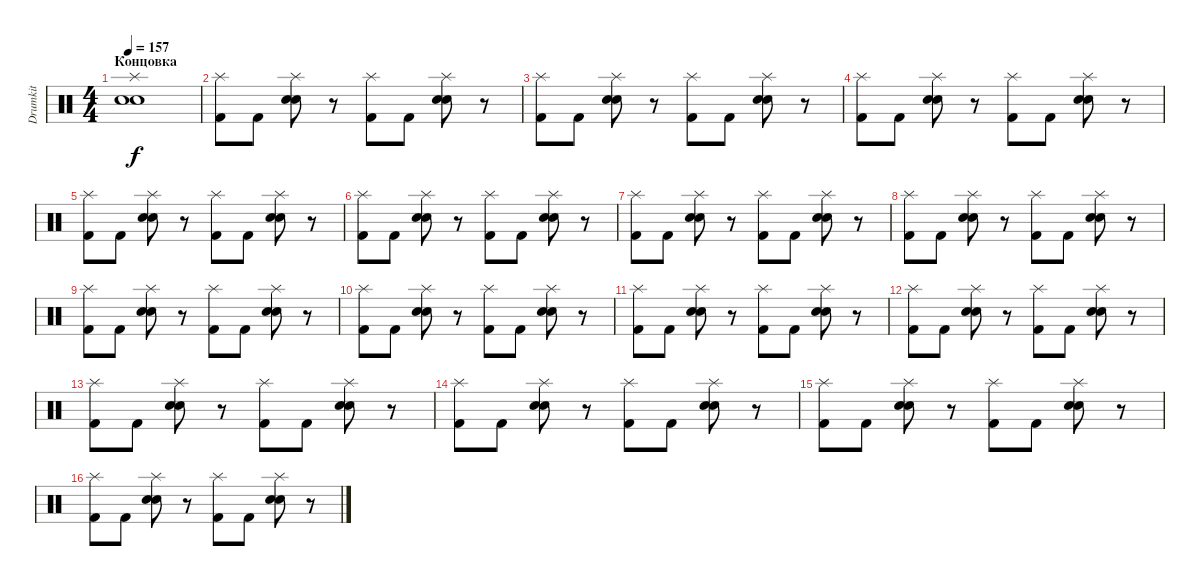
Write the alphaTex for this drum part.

\track ("Drumkit" "Drumkit") {instrument percussion}
\staff {score}
\articulation defaults
\ts (4 4)
\section ("" "Концовка")
\tempo 157
\clef neutral
\ks c
("Splash (hit)" "Electric Snare (hit)" "Snare (hit) 2").1{dy f} |
("Splash (hit)" "Kick (hit) 2").8 "Kick (hit) 2".8 ("Splash (hit)" "Electric Snare (hit)" "Snare (hit) 2").8 r.8 ("Splash (hit)" "Kick (hit) 2").8 "Kick (hit) 2".8 ("Splash (hit)" "Electric Snare (hit)" "Snare (hit) 2").8 r.8 |
("Splash (hit)" "Kick (hit) 2").8 "Kick (hit) 2".8 ("Splash (hit)" "Electric Snare (hit)" "Snare (hit) 2").8 r.8 ("Splash (hit)" "Kick (hit) 2").8 "Kick (hit) 2".8 ("Splash (hit)" "Electric Snare (hit)" "Snare (hit) 2").8 r.8 |
("Splash (hit)" "Kick (hit) 2").8 "Kick (hit) 2".8 ("Splash (hit)" "Electric Snare (hit)" "Snare (hit) 2").8 r.8 ("Splash (hit)" "Kick (hit) 2").8 "Kick (hit) 2".8 ("Splash (hit)" "Electric Snare (hit)" "Snare (hit) 2").8 r.8 |
("Splash (hit)" "Kick (hit) 2").8 "Kick (hit) 2".8 ("Splash (hit)" "Electric Snare (hit)" "Snare (hit) 2").8 r.8 ("Splash (hit)" "Kick (hit) 2").8 "Kick (hit) 2".8 ("Splash (hit)" "Electric Snare (hit)" "Snare (hit) 2").8 r.8 |
("Splash (hit)" "Kick (hit) 2").8 "Kick (hit) 2".8 ("Splash (hit)" "Electric Snare (hit)" "Snare (hit) 2").8 r.8 ("Splash (hit)" "Kick (hit) 2").8 "Kick (hit) 2".8 ("Splash (hit)" "Electric Snare (hit)" "Snare (hit) 2").8 r.8 |
("Splash (hit)" "Kick (hit) 2").8 "Kick (hit) 2".8 ("Splash (hit)" "Electric Snare (hit)" "Snare (hit) 2").8 r.8 ("Splash (hit)" "Kick (hit) 2").8 "Kick (hit) 2".8 ("Splash (hit)" "Electric Snare (hit)" "Snare (hit) 2").8 r.8 |
("Splash (hit)" "Kick (hit) 2").8 "Kick (hit) 2".8 ("Splash (hit)" "Electric Snare (hit)" "Snare (hit) 2").8 r.8 ("Splash (hit)" "Kick (hit) 2").8 "Kick (hit) 2".8 ("Splash (hit)" "Electric Snare (hit)" "Snare (hit) 2").8 r.8 |
("Splash (hit)" "Kick (hit) 2").8 "Kick (hit) 2".8 ("Splash (hit)" "Electric Snare (hit)" "Snare (hit) 2").8 r.8 ("Splash (hit)" "Kick (hit) 2").8 "Kick (hit) 2".8 ("Splash (hit)" "Electric Snare (hit)" "Snare (hit) 2").8 r.8 |
("Splash (hit)" "Kick (hit) 2").8 "Kick (hit) 2".8 ("Splash (hit)" "Electric Snare (hit)" "Snare (hit) 2").8 r.8 ("Splash (hit)" "Kick (hit) 2").8 "Kick (hit) 2".8 ("Splash (hit)" "Electric Snare (hit)" "Snare (hit) 2").8 r.8 |
("Splash (hit)" "Kick (hit) 2").8 "Kick (hit) 2".8 ("Splash (hit)" "Electric Snare (hit)" "Snare (hit) 2").8 r.8 ("Splash (hit)" "Kick (hit) 2").8 "Kick (hit) 2".8 ("Splash (hit)" "Electric Snare (hit)" "Snare (hit) 2").8 r.8 |
("Splash (hit)" "Kick (hit) 2").8 "Kick (hit) 2".8 ("Splash (hit)" "Electric Snare (hit)" "Snare (hit) 2").8 r.8 ("Splash (hit)" "Kick (hit) 2").8 "Kick (hit) 2".8 ("Splash (hit)" "Electric Snare (hit)" "Snare (hit) 2").8 r.8 |
("Splash (hit)" "Kick (hit) 2").8 "Kick (hit) 2".8 ("Splash (hit)" "Electric Snare (hit)" "Snare (hit) 2").8 r.8 ("Splash (hit)" "Kick (hit) 2").8 "Kick (hit) 2".8 ("Splash (hit)" "Electric Snare (hit)" "Snare (hit) 2").8 r.8 |
("Splash (hit)" "Kick (hit) 2").8 "Kick (hit) 2".8 ("Splash (hit)" "Electric Snare (hit)" "Snare (hit) 2").8 r.8 ("Splash (hit)" "Kick (hit) 2").8 "Kick (hit) 2".8 ("Splash (hit)" "Electric Snare (hit)" "Snare (hit) 2").8 r.8 |
("Splash (hit)" "Kick (hit) 2").8 "Kick (hit) 2".8 ("Splash (hit)" "Electric Snare (hit)" "Snare (hit) 2").8 r.8 ("Splash (hit)" "Kick (hit) 2").8 "Kick (hit) 2".8 ("Splash (hit)" "Electric Snare (hit)" "Snare (hit) 2").8 r.8 |
("Splash (hit)" "Kick (hit) 2").8 "Kick (hit) 2".8 ("Splash (hit)" "Electric Snare (hit)" "Snare (hit) 2").8 r.8 ("Splash (hit)" "Kick (hit) 2").8 "Kick (hit) 2".8 ("Splash (hit)" "Electric Snare (hit)" "Snare (hit) 2").8 r.8
